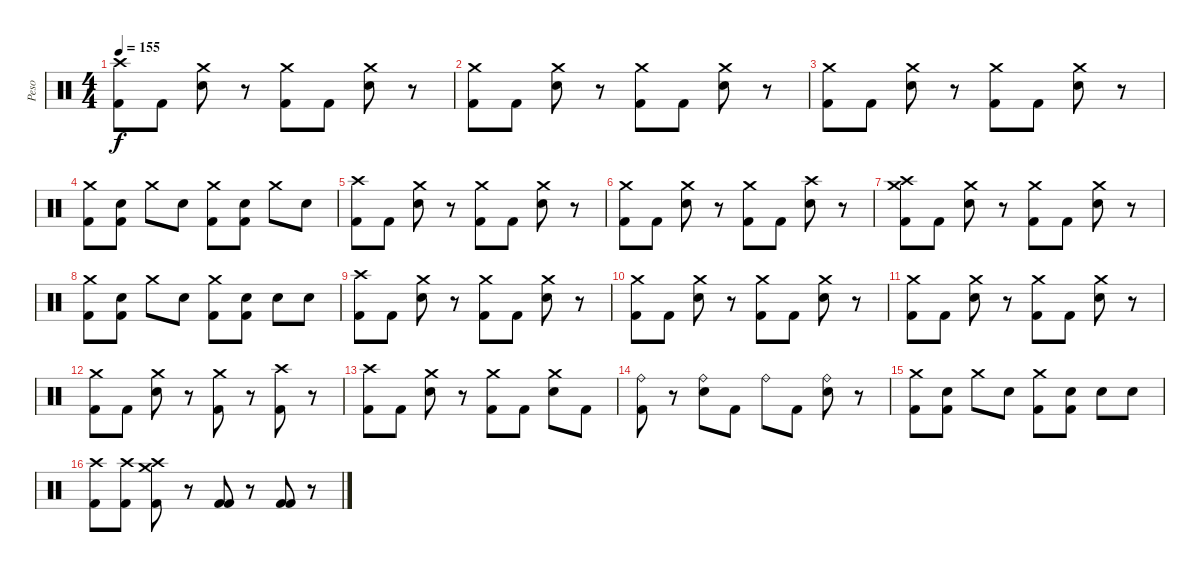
\track ("Peso" "Peso") {instrument percussion}
\staff {score}
\articulation defaults
\ts (4 4)
\tempo 155
\clef neutral
\ks c
("Crash high (hit)" "Kick (hit) 2").8{dy f} "Kick (hit) 2".8 ("Crash medium (hit)" "Snare (hit) 2").8 r.8 ("Crash medium (hit)" "Kick (hit) 2").8 "Kick (hit) 2".8 ("Crash medium (hit)" "Snare (hit) 2").8 r.8 |
("Crash medium (hit)" "Kick (hit) 2").8 "Kick (hit) 2".8 ("Crash medium (hit)" "Snare (hit) 2").8 r.8 ("Crash medium (hit)" "Kick (hit) 2").8 "Kick (hit) 2".8 ("Crash medium (hit)" "Snare (hit) 2").8 r.8 |
("Crash medium (hit)" "Kick (hit) 2").8 "Kick (hit) 2".8 ("Crash medium (hit)" "Snare (hit) 2").8 r.8 ("Crash medium (hit)" "Kick (hit) 2").8 "Kick (hit) 2".8 ("Crash medium (hit)" "Snare (hit) 2").8 r.8 |
("Crash medium (hit)" "Kick (hit) 2").8 ("Snare (hit) 2" "Kick (hit) 2").8 "Crash medium (hit)".8 "Snare (hit) 2".8 ("Crash medium (hit)" "Kick (hit) 2").8 ("Snare (hit) 2" "Kick (hit) 2").8 "Crash medium (hit)".8 "Snare (hit) 2".8 |
("Crash high (hit)" "Kick (hit) 2").8 "Kick (hit) 2".8 ("Crash medium (hit)" "Snare (hit) 2").8 r.8 ("Crash medium (hit)" "Kick (hit) 2").8 "Kick (hit) 2".8 ("Crash medium (hit)" "Snare (hit) 2").8 r.8 |
("Crash medium (hit)" "Kick (hit) 2").8 "Kick (hit) 2".8 ("Crash medium (hit)" "Snare (hit) 2").8 r.8 ("Crash medium (hit)" "Kick (hit) 2").8 "Kick (hit) 2".8 ("Crash high (hit)" "Snare (hit) 2").8 r.8 |
("Crash high (hit)" "Crash medium (hit)" "Kick (hit) 2").8 "Kick (hit) 2".8 ("Crash medium (hit)" "Snare (hit) 2").8 r.8 ("Crash medium (hit)" "Kick (hit) 2").8 "Kick (hit) 2".8 ("Crash medium (hit)" "Snare (hit) 2").8 r.8 |
("Crash medium (hit)" "Kick (hit) 2").8 ("Snare (hit) 2" "Kick (hit) 2").8 "Crash medium (hit)".8 "Snare (hit) 2".8 ("Crash medium (hit)" "Kick (hit) 2").8 ("Snare (hit) 2" "Kick (hit) 2").8 "Snare (hit) 2".8 "Snare (hit) 2".8 |
("Crash high (hit)" "Kick (hit) 2").8 "Kick (hit) 2".8 ("Crash medium (hit)" "Snare (hit) 2").8 r.8 ("Crash medium (hit)" "Kick (hit) 2").8 "Kick (hit) 2".8 ("Crash medium (hit)" "Snare (hit) 2").8 r.8 |
("Crash medium (hit)" "Kick (hit) 2").8 "Kick (hit) 2".8 ("Crash medium (hit)" "Snare (hit) 2").8 r.8 ("Crash medium (hit)" "Kick (hit) 2").8 "Kick (hit) 2".8 ("Crash medium (hit)" "Snare (hit) 2").8 r.8 |
("Crash medium (hit)" "Kick (hit) 2").8 "Kick (hit) 2".8 ("Crash medium (hit)" "Snare (hit) 2").8 r.8 ("Crash medium (hit)" "Kick (hit) 2").8 "Kick (hit) 2".8 ("Crash medium (hit)" "Snare (hit) 2").8 r.8 |
("Crash medium (hit)" "Kick (hit) 2").8 "Kick (hit) 2".8 ("Crash medium (hit)" "Snare (hit) 2").8 r.8 ("Crash medium (hit)" "Kick (hit) 2").8 r.8 ("Crash high (hit)" "Kick (hit) 2").8 r.8 |
("Crash high (hit)" "Kick (hit) 2").8 "Kick (hit) 2".8 ("Crash medium (hit)" "Snare (hit) 2").8 r.8 ("Crash medium (hit)" "Kick (hit) 2").8 "Kick (hit) 2".8 ("Crash medium (hit)" "Snare (hit) 2").8 "Kick (hit) 2".8 |
("Ride (bell)" "Kick (hit) 2").8 r.8 ("Ride (bell)" "Snare (hit) 2").8 "Kick (hit) 2".8 "Ride (bell)".8 "Kick (hit) 2".8 ("Ride (bell)" "Snare (hit) 2").8 r.8 |
("Crash medium (hit)" "Kick (hit) 2").8 ("Snare (hit) 2" "Kick (hit) 2").8 "Crash medium (hit)".8 "Snare (hit) 2".8 ("Crash medium (hit)" "Kick (hit) 2").8 ("Snare (hit) 2" "Kick (hit) 2").8 "Snare (hit) 2".8 "Snare (hit) 2".8 |
("Crash high (hit)" "Kick (hit) 2").8 ("Crash high (hit)" "Kick (hit) 2").8 ("Crash high (hit)" "Crash medium (hit)" "Kick (hit) 2").8 r.8 ("Kick (hit) 2" "Kick (hit) 2").8 r.8 ("Kick (hit) 2" "Kick (hit) 2").8 r.8
